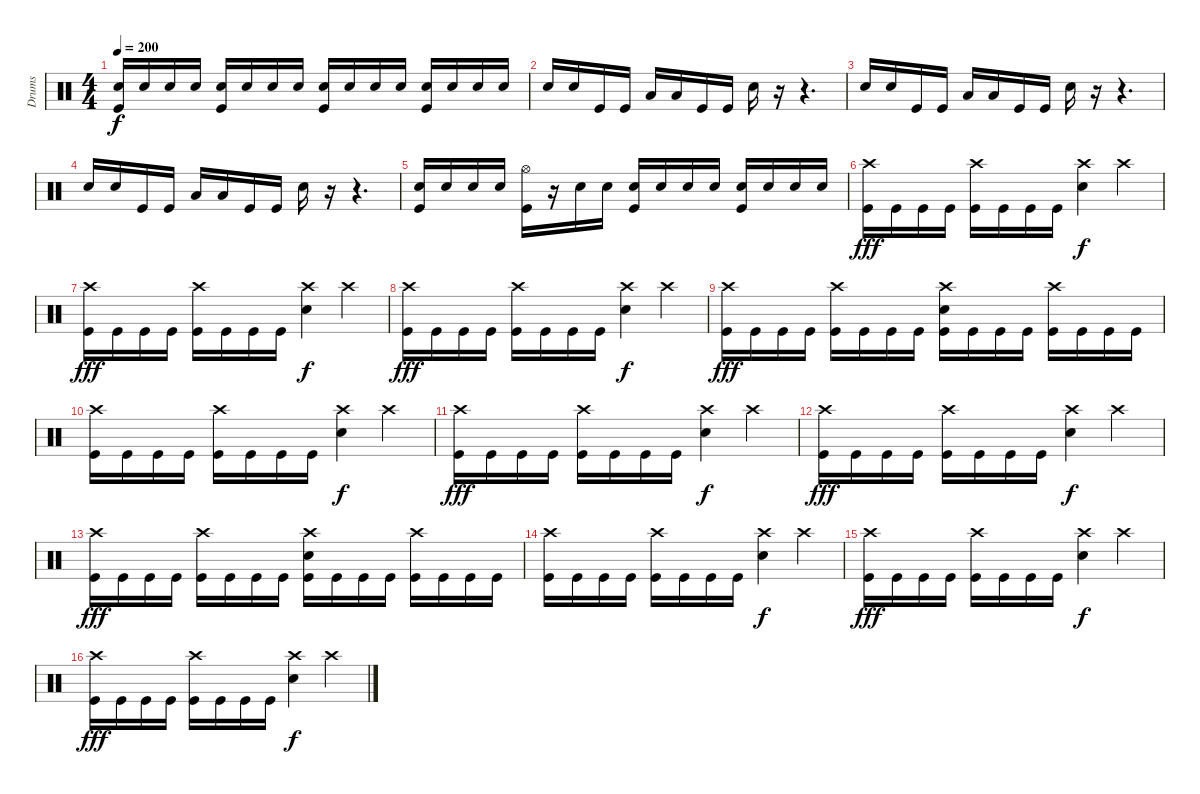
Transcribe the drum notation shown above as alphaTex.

\track ("Drums" "Drums") {instrument percussion}
\staff {score}
\articulation defaults
\ts (4 4)
\tempo 200
\clef neutral
\ks c
("Snare (hit) 2" "Kick (hit)").16{dy f} "Snare (hit) 2".16 "Snare (hit) 2".16 "Snare (hit) 2".16 ("Snare (hit) 2" "Kick (hit)").16 "Snare (hit) 2".16 "Snare (hit) 2".16 "Snare (hit) 2".16 ("Snare (hit) 2" "Kick (hit)").16 "Snare (hit) 2".16 "Snare (hit) 2".16 "Snare (hit) 2".16 ("Snare (hit) 2" "Kick (hit)").16 "Snare (hit) 2".16 "Snare (hit) 2".16 "Snare (hit) 2".16 |
"Snare (hit) 2".16 "Snare (hit) 2".16 "Kick (hit)".16 "Kick (hit)".16 "Low Tom (hit)".16 "Low Tom (hit)".16 "Kick (hit)".16 "Kick (hit)".16 "Snare (hit) 2".16 r.16 r.4{d} |
"Snare (hit) 2".16 "Snare (hit) 2".16 "Kick (hit)".16 "Kick (hit)".16 "Low Tom (hit)".16 "Low Tom (hit)".16 "Kick (hit)".16 "Kick (hit)".16 "Snare (hit) 2".16 r.16 r.4{d} |
"Snare (hit) 2".16 "Snare (hit) 2".16 "Kick (hit)".16 "Kick (hit)".16 "Low Tom (hit)".16 "Low Tom (hit)".16 "Kick (hit)".16 "Kick (hit)".16 "Snare (hit) 2".16 r.16 r.4{d} |
("Snare (hit) 2" "Kick (hit)").16 "Snare (hit) 2".16 "Snare (hit) 2".16 "Snare (hit) 2".16 ("Hi-Hat (open)" "Kick (hit)").16 r.16 "Snare (hit) 2".16 "Snare (hit) 2".16 ("Snare (hit) 2" "Kick (hit)").16 "Snare (hit) 2".16 "Snare (hit) 2".16 "Snare (hit) 2".16 ("Snare (hit) 2" "Kick (hit)").16 "Snare (hit) 2".16 "Snare (hit) 2".16 "Snare (hit) 2".16 |
("Crash high (hit)" "Kick (hit)").16{dy fff} "Kick (hit)".16 "Kick (hit)".16 "Kick (hit)".16 ("Crash high (hit)" "Kick (hit)").16 "Kick (hit)".16 "Kick (hit)".16 "Kick (hit)".16 ("Crash high (hit)" "Snare (hit) 2").4{dy f} "Crash high (hit)".4 |
("Crash high (hit)" "Kick (hit)").16{dy fff} "Kick (hit)".16 "Kick (hit)".16 "Kick (hit)".16 ("Crash high (hit)" "Kick (hit)").16 "Kick (hit)".16 "Kick (hit)".16 "Kick (hit)".16 ("Crash high (hit)" "Snare (hit) 2").4{dy f} "Crash high (hit)".4 |
("Crash high (hit)" "Kick (hit)").16{dy fff} "Kick (hit)".16 "Kick (hit)".16 "Kick (hit)".16 ("Crash high (hit)" "Kick (hit)").16 "Kick (hit)".16 "Kick (hit)".16 "Kick (hit)".16 ("Crash high (hit)" "Snare (hit) 2").4{dy f} "Crash high (hit)".4 |
("Crash high (hit)" "Kick (hit)").16{dy fff} "Kick (hit)".16 "Kick (hit)".16 "Kick (hit)".16 ("Crash high (hit)" "Kick (hit)").16 "Kick (hit)".16 "Kick (hit)".16 "Kick (hit)".16 ("Crash high (hit)" "Snare (hit) 2" "Kick (hit)").16 "Kick (hit)".16 "Kick (hit)".16 "Kick (hit)".16 ("Crash high (hit)" "Kick (hit)").16 "Kick (hit)".16 "Kick (hit)".16 "Kick (hit)".16 |
("Crash high (hit)" "Kick (hit)").16 "Kick (hit)".16 "Kick (hit)".16 "Kick (hit)".16 ("Crash high (hit)" "Kick (hit)").16 "Kick (hit)".16 "Kick (hit)".16 "Kick (hit)".16 ("Crash high (hit)" "Snare (hit) 2").4{dy f} "Crash high (hit)".4 |
("Crash high (hit)" "Kick (hit)").16{dy fff} "Kick (hit)".16 "Kick (hit)".16 "Kick (hit)".16 ("Crash high (hit)" "Kick (hit)").16 "Kick (hit)".16 "Kick (hit)".16 "Kick (hit)".16 ("Crash high (hit)" "Snare (hit) 2").4{dy f} "Crash high (hit)".4 |
("Crash high (hit)" "Kick (hit)").16{dy fff} "Kick (hit)".16 "Kick (hit)".16 "Kick (hit)".16 ("Crash high (hit)" "Kick (hit)").16 "Kick (hit)".16 "Kick (hit)".16 "Kick (hit)".16 ("Crash high (hit)" "Snare (hit) 2").4{dy f} "Crash high (hit)".4 |
("Crash high (hit)" "Kick (hit)").16{dy fff} "Kick (hit)".16 "Kick (hit)".16 "Kick (hit)".16 ("Crash high (hit)" "Kick (hit)").16 "Kick (hit)".16 "Kick (hit)".16 "Kick (hit)".16 ("Crash high (hit)" "Snare (hit) 2" "Kick (hit)").16 "Kick (hit)".16 "Kick (hit)".16 "Kick (hit)".16 ("Crash high (hit)" "Kick (hit)").16 "Kick (hit)".16 "Kick (hit)".16 "Kick (hit)".16 |
("Crash high (hit)" "Kick (hit)").16 "Kick (hit)".16 "Kick (hit)".16 "Kick (hit)".16 ("Crash high (hit)" "Kick (hit)").16 "Kick (hit)".16 "Kick (hit)".16 "Kick (hit)".16 ("Crash high (hit)" "Snare (hit) 2").4{dy f} "Crash high (hit)".4 |
("Crash high (hit)" "Kick (hit)").16{dy fff} "Kick (hit)".16 "Kick (hit)".16 "Kick (hit)".16 ("Crash high (hit)" "Kick (hit)").16 "Kick (hit)".16 "Kick (hit)".16 "Kick (hit)".16 ("Crash high (hit)" "Snare (hit) 2").4{dy f} "Crash high (hit)".4 |
("Crash high (hit)" "Kick (hit)").16{dy fff} "Kick (hit)".16 "Kick (hit)".16 "Kick (hit)".16 ("Crash high (hit)" "Kick (hit)").16 "Kick (hit)".16 "Kick (hit)".16 "Kick (hit)".16 ("Crash high (hit)" "Snare (hit) 2").4{dy f} "Crash high (hit)".4
